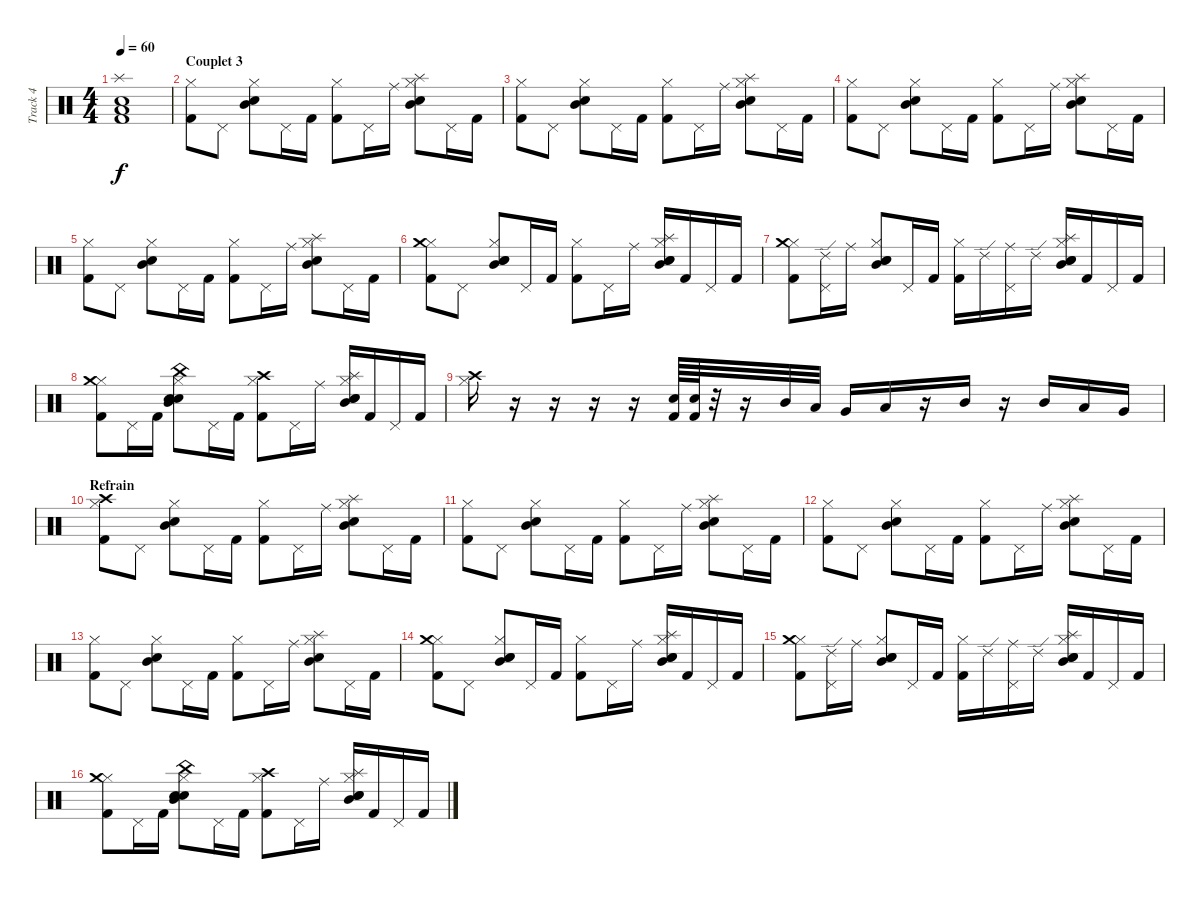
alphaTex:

\track ("Track 4" "Track 4") {instrument percussion}
\staff {score}
\articulation defaults
\ts (4 4)
\tempo 60
\clef neutral
\ks c
("Kick (hit) 2" "Snare (hit) 2" "Low Tom (hit)" "Splash (hit)").1{dy f} |
\section ("" "Couplet 3")
("Hi-Hat (closed)" "Kick (hit) 2").8 "Pedal Hi-Hat (hit)".8 ("Hi-Hat (closed)" "Mid Tom (hit)" "Electric Snare (hit)").8 "Pedal Hi-Hat (hit)".16 "Kick (hit) 2".16 ("Hi-Hat (closed)" "Kick (hit) 2").8 "Pedal Hi-Hat (hit)".16 "Ride (middle)".16 ("Hi-Hat (closed)" "Mid Tom (hit)" "Electric Snare (hit)" "Splash (hit)").8 "Pedal Hi-Hat (hit)".16 "Kick (hit) 2".16 |
("Hi-Hat (closed)" "Kick (hit) 2").8 "Pedal Hi-Hat (hit)".8 ("Hi-Hat (closed)" "Mid Tom (hit)" "Electric Snare (hit)").8 "Pedal Hi-Hat (hit)".16 "Kick (hit) 2".16 ("Hi-Hat (closed)" "Kick (hit) 2").8 "Pedal Hi-Hat (hit)".16 "Ride (middle)".16 ("Hi-Hat (closed)" "Mid Tom (hit)" "Electric Snare (hit)" "Splash (hit)").8 "Pedal Hi-Hat (hit)".16 "Kick (hit) 2".16 |
("Hi-Hat (closed)" "Kick (hit) 2").8 "Pedal Hi-Hat (hit)".8 ("Hi-Hat (closed)" "Mid Tom (hit)" "Electric Snare (hit)").8 "Pedal Hi-Hat (hit)".16 "Kick (hit) 2".16 ("Hi-Hat (closed)" "Kick (hit) 2").8 "Pedal Hi-Hat (hit)".16 "Ride (middle)".16 ("Hi-Hat (closed)" "Mid Tom (hit)" "Electric Snare (hit)" "Splash (hit)").8 "Pedal Hi-Hat (hit)".16 "Kick (hit) 2".16 |
("Hi-Hat (closed)" "Kick (hit) 2").8 "Pedal Hi-Hat (hit)".8 ("Hi-Hat (closed)" "Mid Tom (hit)" "Electric Snare (hit)").8 "Pedal Hi-Hat (hit)".16 "Kick (hit) 2".16 ("Hi-Hat (closed)" "Kick (hit) 2").8 "Pedal Hi-Hat (hit)".16 "Ride (middle)".16 ("Hi-Hat (closed)" "Mid Tom (hit)" "Electric Snare (hit)" "Splash (hit)").8 "Pedal Hi-Hat (hit)".16 "Kick (hit) 2".16 |
("Hi-Hat (closed)" "Kick (hit) 2" "Crash medium (hit)").8 "Pedal Hi-Hat (hit)".8 ("Hi-Hat (closed)" "Mid Tom (hit)" "Electric Snare (hit)" "Snare (hit) 2").8 "Pedal Hi-Hat (hit)".16 "Kick (hit) 2".16 ("Hi-Hat (closed)" "Kick (hit) 2").8 "Pedal Hi-Hat (hit)".16 "Ride (middle)".16 ("Hi-Hat (closed)" "Mid Tom (hit)" "Electric Snare (hit)" "Splash (hit)" "Snare (hit) 2").16 "Kick (hit) 2".16 "Pedal Hi-Hat (hit)".16 "Kick (hit) 2".16 |
("Hi-Hat (closed)" "Kick (hit) 2" "Crash medium (hit)").8 ("Pedal Hi-Hat (hit)" "Ride (edge) 2").16 "Ride (middle)".16 ("Hi-Hat (closed)" "Mid Tom (hit)" "Electric Snare (hit)" "Snare (hit) 2").8 "Pedal Hi-Hat (hit)".16 "Kick (hit) 2".16 ("Hi-Hat (closed)" "Kick (hit) 2").16 "Ride (edge) 2".16 ("Pedal Hi-Hat (hit)" "Ride (middle)").16 "Ride (edge) 2".16 ("Hi-Hat (closed)" "Mid Tom (hit)" "Electric Snare (hit)" "Splash (hit)" "Snare (hit) 2").16 "Kick (hit) 2".16 "Pedal Hi-Hat (hit)".16 "Kick (hit) 2".16 |
("Hi-Hat (closed)" "Kick (hit) 2" "Crash medium (hit)").8 "Pedal Hi-Hat (hit)".16 "Kick (hit) 2".16 ("Hi-Hat (closed)" "Mid Tom (hit)" "Electric Snare (hit)" "Snare (hit) 2" "China (hit)").8 "Pedal Hi-Hat (hit)".16 "Kick (hit) 2".16 ("Hi-Hat (closed)" "Kick (hit) 2" "Crash high (hit)").8 "Pedal Hi-Hat (hit)".16 "Ride (middle)".16 ("Hi-Hat (closed)" "Mid Tom (hit)" "Electric Snare (hit)" "Splash (hit)" "Snare (hit) 2").16 "Kick (hit) 2".16 "Pedal Hi-Hat (hit)".16 "Kick (hit) 2".16 |
("Hi-Hat (closed)" "Crash high (hit)").16 r.16 r.16 r.16 r.16 ("Kick (hit) 2" "Snare (hit) 2").64 ("Kick (hit) 2" "Snare (hit) 2").64 r.32 r.16 "Mid Tom (hit)".32 "Low Tom (hit)".32 "Very Low Tom (hit)".16 "Low Tom (hit)".16 r.16 "Mid Tom (hit)".16 r.16 "Mid Tom (hit)".16 "Low Tom (hit)".16 "Very Low Tom (hit)".16 |
\section ("" "Refrain")
("Hi-Hat (closed)" "Kick (hit) 2" "Crash high (hit)").8 "Pedal Hi-Hat (hit)".8 ("Hi-Hat (closed)" "Mid Tom (hit)" "Electric Snare (hit)").8 "Pedal Hi-Hat (hit)".16 "Kick (hit) 2".16 ("Hi-Hat (closed)" "Kick (hit) 2").8 "Pedal Hi-Hat (hit)".16 "Ride (middle)".16 ("Hi-Hat (closed)" "Mid Tom (hit)" "Electric Snare (hit)" "Splash (hit)").8 "Pedal Hi-Hat (hit)".16 "Kick (hit) 2".16 |
("Hi-Hat (closed)" "Kick (hit) 2").8 "Pedal Hi-Hat (hit)".8 ("Hi-Hat (closed)" "Mid Tom (hit)" "Electric Snare (hit)").8 "Pedal Hi-Hat (hit)".16 "Kick (hit) 2".16 ("Hi-Hat (closed)" "Kick (hit) 2").8 "Pedal Hi-Hat (hit)".16 "Ride (middle)".16 ("Hi-Hat (closed)" "Mid Tom (hit)" "Electric Snare (hit)" "Splash (hit)").8 "Pedal Hi-Hat (hit)".16 "Kick (hit) 2".16 |
("Hi-Hat (closed)" "Kick (hit) 2").8 "Pedal Hi-Hat (hit)".8 ("Hi-Hat (closed)" "Mid Tom (hit)" "Electric Snare (hit)").8 "Pedal Hi-Hat (hit)".16 "Kick (hit) 2".16 ("Hi-Hat (closed)" "Kick (hit) 2").8 "Pedal Hi-Hat (hit)".16 "Ride (middle)".16 ("Hi-Hat (closed)" "Mid Tom (hit)" "Electric Snare (hit)" "Splash (hit)").8 "Pedal Hi-Hat (hit)".16 "Kick (hit) 2".16 |
("Hi-Hat (closed)" "Kick (hit) 2").8 "Pedal Hi-Hat (hit)".8 ("Hi-Hat (closed)" "Mid Tom (hit)" "Electric Snare (hit)").8 "Pedal Hi-Hat (hit)".16 "Kick (hit) 2".16 ("Hi-Hat (closed)" "Kick (hit) 2").8 "Pedal Hi-Hat (hit)".16 "Ride (middle)".16 ("Hi-Hat (closed)" "Mid Tom (hit)" "Electric Snare (hit)" "Splash (hit)").8 "Pedal Hi-Hat (hit)".16 "Kick (hit) 2".16 |
("Hi-Hat (closed)" "Kick (hit) 2" "Crash medium (hit)").8 "Pedal Hi-Hat (hit)".8 ("Hi-Hat (closed)" "Mid Tom (hit)" "Electric Snare (hit)" "Snare (hit) 2").8 "Pedal Hi-Hat (hit)".16 "Kick (hit) 2".16 ("Hi-Hat (closed)" "Kick (hit) 2").8 "Pedal Hi-Hat (hit)".16 "Ride (middle)".16 ("Hi-Hat (closed)" "Mid Tom (hit)" "Electric Snare (hit)" "Splash (hit)" "Snare (hit) 2").16 "Kick (hit) 2".16 "Pedal Hi-Hat (hit)".16 "Kick (hit) 2".16 |
("Hi-Hat (closed)" "Kick (hit) 2" "Crash medium (hit)").8 ("Pedal Hi-Hat (hit)" "Ride (edge) 2").16 "Ride (middle)".16 ("Hi-Hat (closed)" "Mid Tom (hit)" "Electric Snare (hit)" "Snare (hit) 2").8 "Pedal Hi-Hat (hit)".16 "Kick (hit) 2".16 ("Hi-Hat (closed)" "Kick (hit) 2").16 "Ride (edge) 2".16 ("Pedal Hi-Hat (hit)" "Ride (middle)").16 "Ride (edge) 2".16 ("Hi-Hat (closed)" "Mid Tom (hit)" "Electric Snare (hit)" "Splash (hit)" "Snare (hit) 2").16 "Kick (hit) 2".16 "Pedal Hi-Hat (hit)".16 "Kick (hit) 2".16 |
("Hi-Hat (closed)" "Kick (hit) 2" "Crash medium (hit)").8 "Pedal Hi-Hat (hit)".16 "Kick (hit) 2".16 ("Hi-Hat (closed)" "Mid Tom (hit)" "Electric Snare (hit)" "Snare (hit) 2" "China (hit)").8 "Pedal Hi-Hat (hit)".16 "Kick (hit) 2".16 ("Hi-Hat (closed)" "Kick (hit) 2" "Crash high (hit)").8 "Pedal Hi-Hat (hit)".16 "Ride (middle)".16 ("Hi-Hat (closed)" "Mid Tom (hit)" "Electric Snare (hit)" "Splash (hit)" "Snare (hit) 2").16 "Kick (hit) 2".16 "Pedal Hi-Hat (hit)".16 "Kick (hit) 2".16
